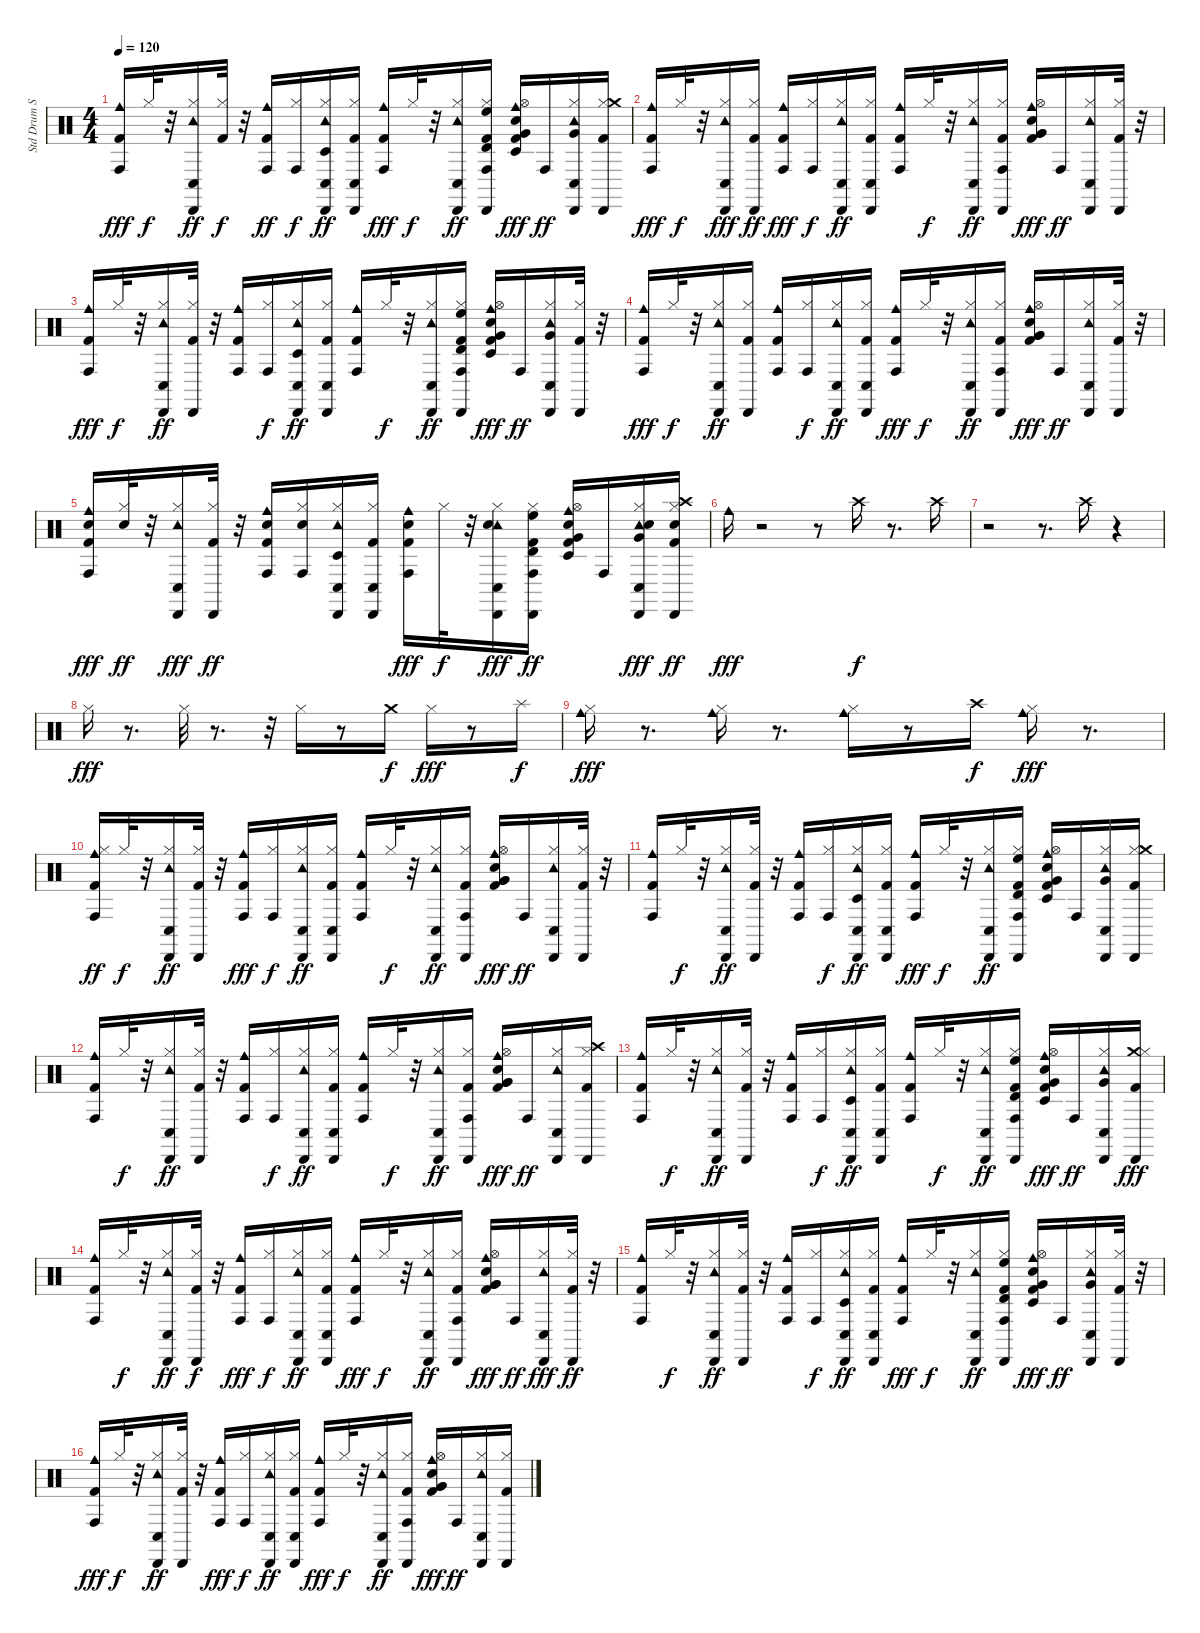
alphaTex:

\track ("Std Drum Set" "Std Drum S") {instrument percussion}
\staff {score}
\articulation defaults
\ts (4 4)
\tempo 120
\clef neutral
\ks c
("Kick (hit) 2" "Conga high (hit)" "Cowbell medium (hit)").16{dy fff} "Hi-Hat (closed)".32{dy f} r.32 ("Hi-Hat (closed)" "Tambourine (hit)" "Cabasa (hit)" "Conga low (hit)").16{dy ff} ("Hi-Hat (closed)" "Kick (hit) 2").32{dy f} r.32 ("Kick (hit) 2" "Cowbell medium (hit)" "Conga high (hit)").16{dy ff} ("Conga high (hit)" "Hi-Hat (closed)").16{dy f} ("Conga low (hit)" "Tambourine (hit)" "Hi-Hat (closed)" "Cabasa (hit)" "Timbale low (hit)").16{dy ff} ("Conga low (hit)" "Kick (hit) 2" "Hi-Hat (closed)" "Cabasa (hit)").16 ("Cowbell medium (hit)" "Conga high (hit)" "Kick (hit) 2").16{dy fff} "Hi-Hat (closed)".32{dy f} r.32 ("Cabasa (hit)" "Tambourine (hit)" "Hi-Hat (closed)" "Conga low (hit)").16{dy ff} ("Timbale high (hit)" "Cabasa (hit)" "Hi-Hat (closed)" "Conga high (hit)" "Kick (hit) 2" "High Floor Tom (hit)").16 ("Electric Snare (hit)" "Timbale low (hit)" "Kick (hit) 2" "Hi-Hat (open)" "Very Low Tom (hit)" "Cowbell medium (hit)").16{dy fff} "Conga high (hit)".16{dy ff} ("Conga low (hit)" "Very Low Tom (hit)" "Hi-Hat (closed)" "Cabasa (hit)" "Tambourine (hit)").16 ("Kick (hit) 2" "Hi-Hat (closed)" "Crash medium (hit)" "Cabasa (hit)").16 |
("Conga high (hit)" "Cowbell medium (hit)" "Kick (hit) 2").16{dy fff} "Hi-Hat (closed)".32{dy f} r.32 ("Conga low (hit)" "Hi-Hat (closed)" "Tambourine (hit)" "Cabasa (hit)").16{dy fff} ("Cabasa (hit)" "Hi-Hat (closed)" "Kick (hit) 2").16{dy ff} ("Cowbell medium (hit)" "Conga high (hit)" "Kick (hit) 2").16{dy fff} ("Hi-Hat (closed)" "Conga high (hit)").16{dy f} ("Cabasa (hit)" "Hi-Hat (closed)" "Conga low (hit)" "Tambourine (hit)").16{dy ff} ("Kick (hit) 2" "Cabasa (hit)" "Hi-Hat (closed)" "Conga low (hit)").16 ("Kick (hit) 2" "Cowbell medium (hit)" "Conga high (hit)").16 "Hi-Hat (closed)".32{dy f} r.32 ("Cabasa (hit)" "Hi-Hat (closed)" "Tambourine (hit)" "Conga low (hit)").16{dy ff} ("Hi-Hat (closed)" "Conga high (hit)" "Cabasa (hit)" "Kick (hit) 2").16 ("Very Low Tom (hit)" "Electric Snare (hit)" "Kick (hit) 2" "Hi-Hat (open)" "Cowbell medium (hit)" "Very Low Tom (hit)").16{dy fff} "Conga high (hit)".16{dy ff} ("Cabasa (hit)" "Conga low (hit)" "Hi-Hat (closed)" "Tambourine (hit)").16 ("Cabasa (hit)" "Kick (hit) 2" "Hi-Hat (closed)").32 r.32 |
("Cowbell medium (hit)" "Conga high (hit)" "Kick (hit) 2").16{dy fff} "Hi-Hat (closed)".32{dy f} r.32 ("Cabasa (hit)" "Conga low (hit)" "Tambourine (hit)" "Hi-Hat (closed)").16{dy ff} ("Kick (hit) 2" "Cabasa (hit)" "Hi-Hat (closed)").32 r.32 ("Kick (hit) 2" "Cowbell medium (hit)" "Conga high (hit)").16 ("Conga high (hit)" "Hi-Hat (closed)").16{dy f} ("Hi-Hat (closed)" "Tambourine (hit)" "Conga low (hit)" "Cabasa (hit)" "Timbale low (hit)").16{dy ff} ("Cabasa (hit)" "Kick (hit) 2" "Conga low (hit)" "Hi-Hat (closed)").16 ("Cowbell medium (hit)" "Kick (hit) 2" "Conga high (hit)").16 "Hi-Hat (closed)".32{dy f} r.32 ("Cabasa (hit)" "Tambourine (hit)" "Hi-Hat (closed)" "Conga low (hit)").16{dy ff} ("Conga high (hit)" "Timbale high (hit)" "Kick (hit) 2" "High Floor Tom (hit)" "Cabasa (hit)" "Hi-Hat (closed)").16 ("Timbale low (hit)" "Kick (hit) 2" "Very Low Tom (hit)" "Hi-Hat (open)" "Cowbell medium (hit)" "Electric Snare (hit)").16{dy fff} "Conga high (hit)".16{dy ff} ("Hi-Hat (closed)" "Tambourine (hit)" "Conga low (hit)" "Cabasa (hit)" "Very Low Tom (hit)").16 ("Hi-Hat (closed)" "Cabasa (hit)" "Kick (hit) 2").32 r.32 |
("Kick (hit) 2" "Conga high (hit)" "Cowbell medium (hit)").16{dy fff} "Hi-Hat (closed)".32{dy f} r.32 ("Tambourine (hit)" "Cabasa (hit)" "Conga low (hit)" "Hi-Hat (closed)").16{dy ff} ("Kick (hit) 2" "Hi-Hat (closed)" "Cabasa (hit)").16 ("Kick (hit) 2" "Cowbell medium (hit)" "Conga high (hit)").16 ("Conga high (hit)" "Hi-Hat (closed)").16{dy f} ("Conga low (hit)" "Tambourine (hit)" "Cabasa (hit)" "Hi-Hat (closed)").16{dy ff} ("Conga low (hit)" "Kick (hit) 2" "Cabasa (hit)" "Hi-Hat (closed)").16 ("Conga high (hit)" "Cowbell medium (hit)" "Kick (hit) 2").16{dy fff} "Hi-Hat (closed)".32{dy f} r.32 ("Cabasa (hit)" "Hi-Hat (closed)" "Tambourine (hit)" "Conga low (hit)").16{dy ff} ("Kick (hit) 2" "Hi-Hat (closed)" "Conga high (hit)" "Cabasa (hit)").16 ("Very Low Tom (hit)" "Kick (hit) 2" "Hi-Hat (open)" "Cowbell medium (hit)" "Very Low Tom (hit)" "Electric Snare (hit)").16{dy fff} "Conga high (hit)".16{dy ff} ("Conga low (hit)" "Cabasa (hit)" "Hi-Hat (closed)" "Tambourine (hit)").16 ("Cabasa (hit)" "Hi-Hat (closed)" "Kick (hit) 2").32 r.32 |
("Cowbell medium (hit)" "Conga high (hit)" "Electric Snare (hit)" "Kick (hit) 2").16{dy fff} ("Hi-Hat (closed)" "Electric Snare (hit)").32{dy ff} r.32 ("Conga low (hit)" "Hi-Hat (closed)" "Tambourine (hit)" "Cabasa (hit)").16{dy fff} ("Kick (hit) 2" "Hi-Hat (closed)" "Cabasa (hit)").32{dy ff} r.32 ("Electric Snare (hit)" "Kick (hit) 2" "Cowbell medium (hit)" "Conga high (hit)").16 ("Hi-Hat (closed)" "Electric Snare (hit)" "Conga high (hit)").16 ("Hi-Hat (closed)" "Conga low (hit)" "Timbale low (hit)" "Cabasa (hit)" "Tambourine (hit)").16 ("Kick (hit) 2" "Hi-Hat (closed)" "Conga low (hit)" "Cabasa (hit)").16 ("Kick (hit) 2" "Conga high (hit)" "Electric Snare (hit)" "Cowbell medium (hit)").16{dy fff} "Hi-Hat (closed)".32{dy f} r.32 ("Tambourine (hit)" "Hi-Hat (closed)" "Conga low (hit)" "Cabasa (hit)" "Electric Snare (hit)").16{dy fff} ("Kick (hit) 2" "Timbale high (hit)" "Hi-Hat (closed)" "Cabasa (hit)" "High Floor Tom (hit)" "Conga high (hit)").16{dy ff} ("Electric Snare (hit)" "Timbale low (hit)" "Cowbell medium (hit)" "Very Low Tom (hit)" "Kick (hit) 2" "Hi-Hat (open)").16 "Conga high (hit)".16 ("Very Low Tom (hit)" "Hi-Hat (closed)" "Cabasa (hit)" "Tambourine (hit)" "Conga low (hit)" "Electric Snare (hit)").16{dy fff} ("Crash high (hit)" "Electric Snare (hit)" "Cabasa (hit)" "Kick (hit) 2" "Hi-Hat (closed)").16{dy ff} |
"Cowbell medium (hit)".16{dy fff} r.2 r.8 "Crash high (hit)".16{dy f} r.8{d} "Crash high (hit)".16 |
r.2 r.8{d} "Crash high (hit)".16 r.4 |
"Hi-Hat (closed)".16{dy fff} r.8{d} "Hi-Hat (closed)".32 r.8{d} r.32 "Hi-Hat (closed)".16 r.8 "Crash medium (hit)".16{dy f} "Hi-Hat (closed)".16{dy fff} r.8 "Splash (hit)".16{dy f} |
("Cowbell medium (hit)" "Hi-Hat (closed)").16{dy fff} r.8{d} ("Hi-Hat (closed)" "Cowbell medium (hit)").16 r.8{d} ("Cowbell medium (hit)" "Hi-Hat (closed)").16 r.8 "Crash high (hit)".16{dy f} ("Cowbell medium (hit)" "Hi-Hat (closed)").16{dy fff} r.8{d} |
("Hi-Hat (closed)" "Kick (hit) 2" "Cowbell medium (hit)" "Conga high (hit)").16{dy ff} "Hi-Hat (closed)".32{dy f} r.32 ("Cabasa (hit)" "Hi-Hat (closed)" "Conga low (hit)" "Tambourine (hit)").16{dy ff} ("Kick (hit) 2" "Cabasa (hit)" "Hi-Hat (closed)").32 r.32 ("Cowbell medium (hit)" "Conga high (hit)" "Kick (hit) 2").16{dy fff} ("Conga high (hit)" "Hi-Hat (closed)").16{dy f} ("Cabasa (hit)" "Conga low (hit)" "Tambourine (hit)" "Hi-Hat (closed)").16{dy ff} ("Cabasa (hit)" "Hi-Hat (closed)" "Conga low (hit)" "Kick (hit) 2").16 ("Kick (hit) 2" "Cowbell medium (hit)" "Conga high (hit)").16 "Hi-Hat (closed)".32{dy f} r.32 ("Hi-Hat (closed)" "Cabasa (hit)" "Tambourine (hit)" "Conga low (hit)").16{dy ff} ("Cabasa (hit)" "Conga high (hit)" "Kick (hit) 2" "Hi-Hat (closed)").16 ("Very Low Tom (hit)" "Electric Snare (hit)" "Hi-Hat (open)" "Kick (hit) 2" "Very Low Tom (hit)" "Cowbell medium (hit)").16{dy fff} "Conga high (hit)".16{dy ff} ("Cabasa (hit)" "Conga low (hit)" "Hi-Hat (closed)" "Tambourine (hit)").16 ("Cabasa (hit)" "Kick (hit) 2" "Hi-Hat (closed)").32 r.32 |
("Cowbell medium (hit)" "Kick (hit) 2" "Conga high (hit)").16 "Hi-Hat (closed)".32{dy f} r.32 ("Tambourine (hit)" "Hi-Hat (closed)" "Cabasa (hit)" "Conga low (hit)").16{dy ff} ("Cabasa (hit)" "Kick (hit) 2" "Hi-Hat (closed)").32 r.32 ("Cowbell medium (hit)" "Kick (hit) 2" "Conga high (hit)").16 ("Conga high (hit)" "Hi-Hat (closed)").16{dy f} ("Cabasa (hit)" "Tambourine (hit)" "Timbale low (hit)" "Conga low (hit)" "Hi-Hat (closed)").16{dy ff} ("Hi-Hat (closed)" "Kick (hit) 2" "Conga low (hit)" "Cabasa (hit)").16 ("Conga high (hit)" "Cowbell medium (hit)" "Kick (hit) 2").16{dy fff} "Hi-Hat (closed)".32{dy f} r.32 ("Tambourine (hit)" "Cabasa (hit)" "Conga low (hit)" "Hi-Hat (closed)").16{dy ff} ("Timbale high (hit)" "Kick (hit) 2" "High Floor Tom (hit)" "Conga high (hit)" "Hi-Hat (closed)" "Cabasa (hit)").16 ("Cowbell medium (hit)" "Electric Snare (hit)" "Kick (hit) 2" "Timbale low (hit)" "Very Low Tom (hit)" "Hi-Hat (open)").16 "Conga high (hit)".16 ("Cabasa (hit)" "Tambourine (hit)" "Conga low (hit)" "Very Low Tom (hit)" "Hi-Hat (closed)").16 ("Hi-Hat (closed)" "Crash medium (hit)" "Kick (hit) 2" "Cabasa (hit)").16 |
("Kick (hit) 2" "Cowbell medium (hit)" "Conga high (hit)").16 "Hi-Hat (closed)".32{dy f} r.32 ("Tambourine (hit)" "Conga low (hit)" "Hi-Hat (closed)" "Cabasa (hit)").16{dy ff} ("Kick (hit) 2" "Cabasa (hit)" "Hi-Hat (closed)").32 r.32 ("Cowbell medium (hit)" "Kick (hit) 2" "Conga high (hit)").16 ("Hi-Hat (closed)" "Conga high (hit)").16{dy f} ("Cabasa (hit)" "Hi-Hat (closed)" "Tambourine (hit)" "Conga low (hit)").16{dy ff} ("Cabasa (hit)" "Hi-Hat (closed)" "Conga low (hit)" "Kick (hit) 2").16 ("Cowbell medium (hit)" "Kick (hit) 2" "Conga high (hit)").16 "Hi-Hat (closed)".32{dy f} r.32 ("Cabasa (hit)" "Conga low (hit)" "Tambourine (hit)" "Hi-Hat (closed)").16{dy ff} ("Conga high (hit)" "Cabasa (hit)" "Hi-Hat (closed)" "Kick (hit) 2").16 ("Very Low Tom (hit)" "Cowbell medium (hit)" "Hi-Hat (open)" "Kick (hit) 2" "Electric Snare (hit)" "Very Low Tom (hit)").16{dy fff} "Conga high (hit)".16{dy ff} ("Conga low (hit)" "Hi-Hat (closed)" "Tambourine (hit)" "Cabasa (hit)").16 ("Kick (hit) 2" "Hi-Hat (closed)" "Crash high (hit)" "Cabasa (hit)").16 |
("Kick (hit) 2" "Cowbell medium (hit)" "Conga high (hit)").16 "Hi-Hat (closed)".32{dy f} r.32 ("Tambourine (hit)" "Hi-Hat (closed)" "Conga low (hit)" "Cabasa (hit)").16{dy ff} ("Hi-Hat (closed)" "Cabasa (hit)" "Kick (hit) 2").32 r.32 ("Cowbell medium (hit)" "Kick (hit) 2" "Conga high (hit)").16 ("Hi-Hat (closed)" "Conga high (hit)").16{dy f} ("Tambourine (hit)" "Timbale low (hit)" "Cabasa (hit)" "Conga low (hit)" "Hi-Hat (closed)").16{dy ff} ("Hi-Hat (closed)" "Cabasa (hit)" "Conga low (hit)" "Kick (hit) 2").16 ("Cowbell medium (hit)" "Kick (hit) 2" "Conga high (hit)").16 "Hi-Hat (closed)".32{dy f} r.32 ("Tambourine (hit)" "Cabasa (hit)" "Hi-Hat (closed)" "Conga low (hit)").16{dy ff} ("Hi-Hat (closed)" "Kick (hit) 2" "High Floor Tom (hit)" "Timbale high (hit)" "Conga high (hit)" "Cabasa (hit)").16 ("Electric Snare (hit)" "Timbale low (hit)" "Cowbell medium (hit)" "Kick (hit) 2" "Hi-Hat (open)" "Very Low Tom (hit)").16{dy fff} "Conga high (hit)".16{dy ff} ("Hi-Hat (closed)" "Very Low Tom (hit)" "Conga low (hit)" "Cabasa (hit)" "Tambourine (hit)").16 ("Cabasa (hit)" "Kick (hit) 2" "Crash medium (hit)" "Hi-Hat (closed)").16{dy fff} |
("Conga high (hit)" "Cowbell medium (hit)" "Kick (hit) 2").16 "Hi-Hat (closed)".32{dy f} r.32 ("Tambourine (hit)" "Conga low (hit)" "Hi-Hat (closed)" "Cabasa (hit)").16{dy ff} ("Kick (hit) 2" "Hi-Hat (closed)" "Cabasa (hit)").32{dy f} r.32 ("Conga high (hit)" "Cowbell medium (hit)" "Kick (hit) 2").16{dy fff} ("Conga high (hit)" "Hi-Hat (closed)").16{dy f} ("Cabasa (hit)" "Tambourine (hit)" "Hi-Hat (closed)" "Conga low (hit)").16{dy ff} ("Hi-Hat (closed)" "Cabasa (hit)" "Kick (hit) 2" "Conga low (hit)").16 ("Conga high (hit)" "Cowbell medium (hit)" "Kick (hit) 2").16{dy fff} "Hi-Hat (closed)".32{dy f} r.32 ("Tambourine (hit)" "Cabasa (hit)" "Hi-Hat (closed)" "Conga low (hit)").16{dy ff} ("Cabasa (hit)" "Conga high (hit)" "Kick (hit) 2" "Hi-Hat (closed)").16 ("Very Low Tom (hit)" "Cowbell medium (hit)" "Electric Snare (hit)" "Very Low Tom (hit)" "Hi-Hat (open)" "Kick (hit) 2").16{dy fff} "Conga high (hit)".16{dy ff} ("Hi-Hat (closed)" "Tambourine (hit)" "Conga low (hit)" "Cabasa (hit)").16{dy fff} ("Hi-Hat (closed)" "Kick (hit) 2" "Cabasa (hit)").32{dy ff} r.32 |
("Cowbell medium (hit)" "Kick (hit) 2" "Conga high (hit)").16 "Hi-Hat (closed)".32{dy f} r.32 ("Conga low (hit)" "Cabasa (hit)" "Hi-Hat (closed)" "Tambourine (hit)").16{dy ff} ("Hi-Hat (closed)" "Kick (hit) 2" "Cabasa (hit)").32 r.32 ("Kick (hit) 2" "Cowbell medium (hit)" "Conga high (hit)").16 ("Hi-Hat (closed)" "Conga high (hit)").16{dy f} ("Timbale low (hit)" "Conga low (hit)" "Tambourine (hit)" "Cabasa (hit)" "Hi-Hat (closed)").16{dy ff} ("Hi-Hat (closed)" "Kick (hit) 2" "Cabasa (hit)" "Conga low (hit)").16 ("Conga high (hit)" "Kick (hit) 2" "Cowbell medium (hit)").16{dy fff} "Hi-Hat (closed)".32{dy f} r.32 ("Hi-Hat (closed)" "Cabasa (hit)" "Conga low (hit)" "Tambourine (hit)").16{dy ff} ("Conga high (hit)" "Cabasa (hit)" "Timbale high (hit)" "Hi-Hat (closed)" "High Floor Tom (hit)" "Kick (hit) 2").16 ("Very Low Tom (hit)" "Electric Snare (hit)" "Kick (hit) 2" "Hi-Hat (open)" "Cowbell medium (hit)" "Timbale low (hit)").16{dy fff} "Conga high (hit)".16{dy ff} ("Cabasa (hit)" "Very Low Tom (hit)" "Conga low (hit)" "Hi-Hat (closed)" "Tambourine (hit)").16 ("Kick (hit) 2" "Hi-Hat (closed)" "Cabasa (hit)").32 r.32 |
("Conga high (hit)" "Cowbell medium (hit)" "Kick (hit) 2").16{dy fff} "Hi-Hat (closed)".32{dy f} r.32 ("Tambourine (hit)" "Hi-Hat (closed)" "Cabasa (hit)" "Conga low (hit)").16{dy ff} ("Hi-Hat (closed)" "Kick (hit) 2" "Cabasa (hit)").32 r.32 ("Kick (hit) 2" "Conga high (hit)" "Cowbell medium (hit)").16{dy fff} ("Hi-Hat (closed)" "Conga high (hit)").16{dy f} ("Cabasa (hit)" "Hi-Hat (closed)" "Conga low (hit)" "Tambourine (hit)").16{dy ff} ("Hi-Hat (closed)" "Cabasa (hit)" "Conga low (hit)" "Kick (hit) 2").16 ("Conga high (hit)" "Cowbell medium (hit)" "Kick (hit) 2").16{dy fff} "Hi-Hat (closed)".32{dy f} r.32 ("Hi-Hat (closed)" "Tambourine (hit)" "Conga low (hit)" "Cabasa (hit)").16{dy ff} ("Conga high (hit)" "Cabasa (hit)" "Kick (hit) 2" "Hi-Hat (closed)").16 ("Very Low Tom (hit)" "Cowbell medium (hit)" "Electric Snare (hit)" "Hi-Hat (open)" "Very Low Tom (hit)" "Kick (hit) 2").16{dy fff} "Conga high (hit)".16{dy ff} ("Hi-Hat (closed)" "Cabasa (hit)" "Conga low (hit)" "Tambourine (hit)").16 ("Cabasa (hit)" "Hi-Hat (closed)" "Kick (hit) 2").16
